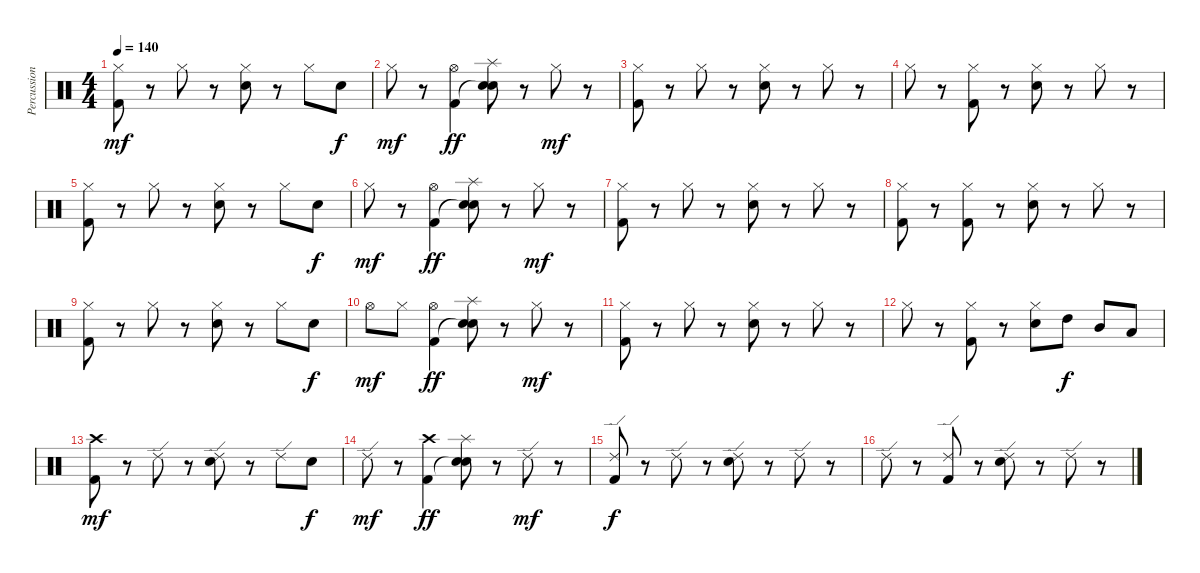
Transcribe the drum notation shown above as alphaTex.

\track ("Percussion" "Percussion") {instrument percussion}
\staff {score}
\articulation defaults
\ts (4 4)
\tempo 140
\clef neutral
\ks c
("Hi-Hat (closed)" "Kick (hit) 2").8{dy mf} r.8 "Hi-Hat (closed)".8 r.8 ("Hi-Hat (closed)" "Electric Snare (hit)").8 r.8 "Hi-Hat (closed)".8 "Electric Snare (hit)".8{dy f} |
"Hi-Hat (closed)".8{dy mf} r.8 ("Hi-Hat (open)" "Kick (hit) 2").4{dy ff} ("Splash (hit)" "Electric Snare (hit)"{t} "Electric Snare (hit)").8 r.8 "Hi-Hat (closed)".8{dy mf} r.8 |
("Hi-Hat (closed)" "Kick (hit) 2").8 r.8 "Hi-Hat (closed)".8 r.8 ("Hi-Hat (closed)" "Electric Snare (hit)").8 r.8 "Hi-Hat (closed)".8 r.8 |
"Hi-Hat (closed)".8 r.8 ("Hi-Hat (closed)" "Kick (hit) 2").8 r.8 ("Hi-Hat (closed)" "Electric Snare (hit)").8 r.8 "Hi-Hat (closed)".8 r.8 |
("Hi-Hat (closed)" "Kick (hit) 2").8 r.8 "Hi-Hat (closed)".8 r.8 ("Hi-Hat (closed)" "Electric Snare (hit)").8 r.8 "Hi-Hat (closed)".8 "Electric Snare (hit)".8{dy f} |
"Hi-Hat (closed)".8{dy mf} r.8 ("Hi-Hat (open)" "Kick (hit) 2").4{dy ff} ("Splash (hit)" "Electric Snare (hit)"{t} "Electric Snare (hit)").8 r.8 "Hi-Hat (closed)".8{dy mf} r.8 |
("Hi-Hat (closed)" "Kick (hit) 2").8 r.8 "Hi-Hat (closed)".8 r.8 ("Hi-Hat (closed)" "Electric Snare (hit)").8 r.8 "Hi-Hat (closed)".8 r.8 |
("Hi-Hat (closed)" "Kick (hit) 2").8 r.8 ("Hi-Hat (closed)" "Kick (hit) 2").8 r.8 ("Hi-Hat (closed)" "Electric Snare (hit)").8 r.8 "Hi-Hat (closed)".8 r.8 |
("Hi-Hat (closed)" "Kick (hit) 2").8 r.8 "Hi-Hat (closed)".8 r.8 ("Hi-Hat (closed)" "Electric Snare (hit)").8 r.8 "Hi-Hat (closed)".8 "Electric Snare (hit)".8{dy f} |
"Hi-Hat (open)".8{dy mf} "Hi-Hat (closed)".8 ("Hi-Hat (open)" "Kick (hit) 2").4{dy ff} ("Splash (hit)" "Electric Snare (hit)"{t} "Electric Snare (hit)").8 r.8 "Hi-Hat (closed)".8{dy mf} r.8 |
("Hi-Hat (closed)" "Kick (hit) 2").8 r.8 "Hi-Hat (closed)".8 r.8 ("Hi-Hat (closed)" "Electric Snare (hit)").8 r.8 "Hi-Hat (closed)".8 r.8 |
"Hi-Hat (closed)".8 r.8 ("Hi-Hat (closed)" "Kick (hit) 2").8 r.8 ("Hi-Hat (closed)" "Electric Snare (hit)").8 "High Tom (hit)".8{dy f} "Mid Tom (hit)".8 "Low Tom (hit)".8 |
("Crash high (hit)" "Kick (hit) 2").8{dy mf} r.8 "Ride (edge) 2".8 r.8 ("Ride (edge) 2" "Electric Snare (hit)").8 r.8 "Ride (edge) 2".8 "Electric Snare (hit)".8{dy f} |
"Ride (edge) 2".8{dy mf} r.8 ("Crash high (hit)" "Kick (hit) 2").4{dy ff} ("Splash (hit)" "Electric Snare (hit)"{t} "Electric Snare (hit)").8 r.8 "Ride (edge) 2".8{dy mf} r.8 |
("Ride (edge) 2" "Kick (hit) 2").8{dy f} r.8 "Ride (edge) 2".8 r.8 ("Ride (edge) 2" "Electric Snare (hit)").8 r.8 "Ride (edge) 2".8 r.8 |
"Ride (edge) 2".8 r.8 ("Ride (edge) 2" "Kick (hit) 2").8 r.8 ("Ride (edge) 2" "Electric Snare (hit)").8 r.8 "Ride (edge) 2".8 r.8
